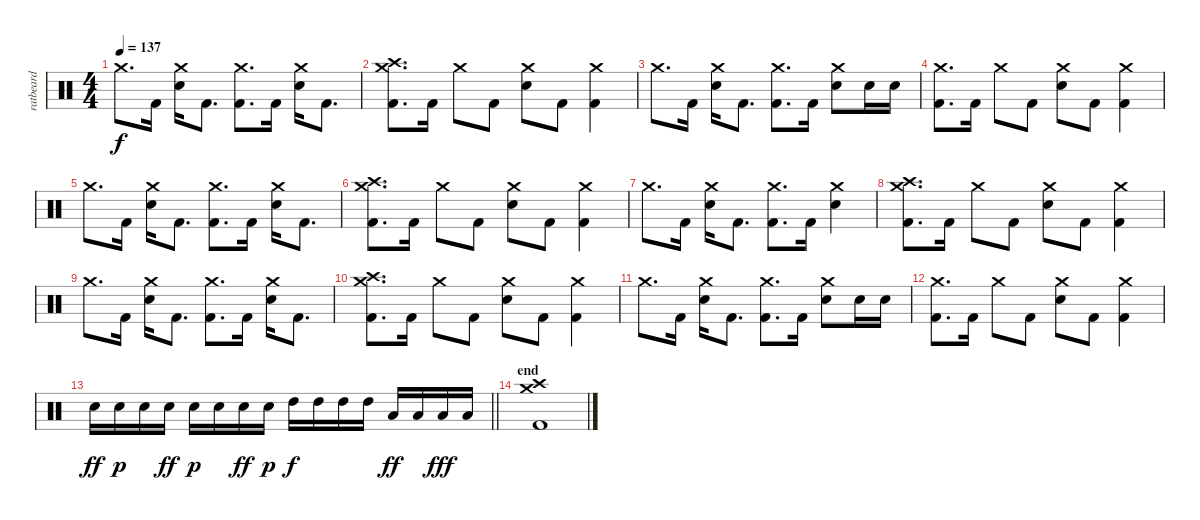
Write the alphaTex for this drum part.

\track ("ratbeard" "ratbeard") {instrument percussion}
\staff {score}
\articulation defaults
\ts (4 4)
\tempo 137
\clef neutral
\ks c "Crash medium (hit)".8{d dy f} "Kick (hit) 2".16
("Crash medium (hit)" "Electric Snare (hit)").16 "Kick (hit) 2".8{d} ("Crash medium (hit)" "Kick (hit) 2").8{d} "Kick (hit) 2".16 ("Crash medium (hit)" "Electric Snare (hit)").16 "Kick (hit) 2".8{d} |
("Crash high (hit)" "Crash medium (hit)" "Kick (hit) 2").8{d} "Kick (hit) 2".16 "Crash medium (hit)".8 "Kick (hit) 2".8 ("Crash medium (hit)" "Electric Snare (hit)").8 "Kick (hit) 2".8 ("Crash medium (hit)" "Kick (hit) 2").4 |
"Crash medium (hit)".8{d} "Kick (hit) 2".16 ("Crash medium (hit)" "Electric Snare (hit)").16 "Kick (hit) 2".8{d} ("Crash medium (hit)" "Kick (hit) 2").8{d} "Kick (hit) 2".16 ("Crash medium (hit)" "Electric Snare (hit)").8 "Electric Snare (hit)".16 "Electric Snare (hit)".16 |
("Crash medium (hit)" "Kick (hit) 2").8{d} "Kick (hit) 2".16 "Crash medium (hit)".8 "Kick (hit) 2".8 ("Crash medium (hit)" "Electric Snare (hit)").8 "Kick (hit) 2".8 ("Crash medium (hit)" "Kick (hit) 2").4 |
"Crash medium (hit)".8{d} "Kick (hit) 2".16 ("Crash medium (hit)" "Electric Snare (hit)").16 "Kick (hit) 2".8{d} ("Crash medium (hit)" "Kick (hit) 2").8{d} "Kick (hit) 2".16 ("Crash medium (hit)" "Electric Snare (hit)").16 "Kick (hit) 2".8{d} |
("Crash high (hit)" "Crash medium (hit)" "Kick (hit) 2").8{d} "Kick (hit) 2".16 "Crash medium (hit)".8 "Kick (hit) 2".8 ("Crash medium (hit)" "Electric Snare (hit)").8 "Kick (hit) 2".8 ("Crash medium (hit)" "Kick (hit) 2").4 |
"Crash medium (hit)".8{d} "Kick (hit) 2".16 ("Crash medium (hit)" "Electric Snare (hit)").16 "Kick (hit) 2".8{d} ("Crash medium (hit)" "Kick (hit) 2").8{d} "Kick (hit) 2".16 ("Crash medium (hit)" "Electric Snare (hit)").4 |
("Crash high (hit)" "Crash medium (hit)" "Kick (hit) 2").8{d} "Kick (hit) 2".16 "Crash medium (hit)".8 "Kick (hit) 2".8 ("Crash medium (hit)" "Electric Snare (hit)").8 "Kick (hit) 2".8 ("Crash medium (hit)" "Kick (hit) 2").4 |
"Crash medium (hit)".8{d} "Kick (hit) 2".16 ("Crash medium (hit)" "Electric Snare (hit)").16 "Kick (hit) 2".8{d} ("Crash medium (hit)" "Kick (hit) 2").8{d} "Kick (hit) 2".16 ("Crash medium (hit)" "Electric Snare (hit)").16 "Kick (hit) 2".8{d} |
("Crash high (hit)" "Crash medium (hit)" "Kick (hit) 2").8{d} "Kick (hit) 2".16 "Crash medium (hit)".8 "Kick (hit) 2".8 ("Crash medium (hit)" "Electric Snare (hit)").8 "Kick (hit) 2".8 ("Crash medium (hit)" "Kick (hit) 2").4 |
"Crash medium (hit)".8{d} "Kick (hit) 2".16 ("Crash medium (hit)" "Electric Snare (hit)").16 "Kick (hit) 2".8{d} ("Crash medium (hit)" "Kick (hit) 2").8{d} "Kick (hit) 2".16 ("Crash medium (hit)" "Electric Snare (hit)").8 "Electric Snare (hit)".16 "Electric Snare (hit)".16 |
("Crash medium (hit)" "Kick (hit) 2").8{d} "Kick (hit) 2".16 "Crash medium (hit)".8 "Kick (hit) 2".8 ("Crash medium (hit)" "Electric Snare (hit)").8 "Kick (hit) 2".8 ("Crash medium (hit)" "Kick (hit) 2").4 |
\barLineRight lightlight "Electric Snare (hit)".16{dy ff} "Electric Snare (hit)".16{dy p} "Electric Snare (hit)".16 "Electric Snare (hit)".16{dy ff} "Electric Snare (hit)".16{dy p} "Electric Snare (hit)".16 "Electric Snare (hit)".16{dy ff} "Electric Snare (hit)".16{dy p} "High Tom (hit)".16{dy f} "High Tom (hit)".16 "High Tom (hit)".16 "High Tom (hit)".16 "Low Floor Tom (hit)".16{dy ff} "Low Floor Tom (hit)".16 "Low Floor Tom (hit)".16{dy fff} "Low Floor Tom (hit)".16
|
\section ("" "end")
("Crash medium (hit)" "Crash high (hit)" "Kick (hit) 2").1
